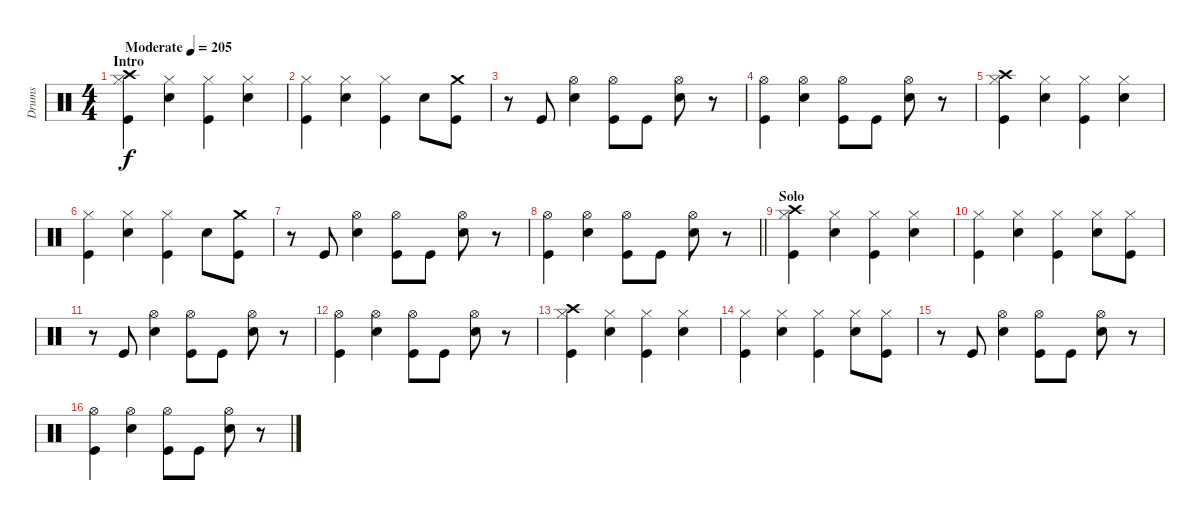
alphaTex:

\track ("Drums" "Drums") {instrument percussion}
\staff {score}
\articulation defaults
\ts (4 4)
\section ("" "Intro")
\tempo (205 "Moderate")
\clef neutral
\ks c
("Crash high (hit)" "Hi-Hat (closed)" "Kick (hit)").4{dy f} ("Hi-Hat (closed)" "Electric Snare (hit)").4 ("Hi-Hat (closed)" "Kick (hit)").4 ("Hi-Hat (closed)" "Electric Snare (hit)").4 |
("Hi-Hat (closed)" "Kick (hit)").4 ("Hi-Hat (closed)" "Electric Snare (hit)").4 ("Hi-Hat (closed)" "Kick (hit)").4 "Electric Snare (hit)".8 ("Crash medium (hit)" "Kick (hit)").8 |
r.8 "Kick (hit)".8 ("Hi-Hat (open)" "Electric Snare (hit)").4 ("Hi-Hat (open)" "Kick (hit)").8 "Kick (hit)".8 ("Hi-Hat (open)" "Electric Snare (hit)").8 r.8 |
("Hi-Hat (open)" "Kick (hit)").4 ("Hi-Hat (open)" "Electric Snare (hit)").4 ("Hi-Hat (open)" "Kick (hit)").8 "Kick (hit)".8 ("Hi-Hat (open)" "Electric Snare (hit)").8 r.8 |
("Crash high (hit)" "Hi-Hat (closed)" "Kick (hit)").4 ("Hi-Hat (closed)" "Electric Snare (hit)").4 ("Hi-Hat (closed)" "Kick (hit)").4 ("Hi-Hat (closed)" "Electric Snare (hit)").4 |
("Hi-Hat (closed)" "Kick (hit)").4 ("Hi-Hat (closed)" "Electric Snare (hit)").4 ("Hi-Hat (closed)" "Kick (hit)").4 "Electric Snare (hit)".8 ("Crash medium (hit)" "Kick (hit)").8 |
r.8 "Kick (hit)".8 ("Hi-Hat (open)" "Electric Snare (hit)").4 ("Hi-Hat (open)" "Kick (hit)").8 "Kick (hit)".8 ("Hi-Hat (open)" "Electric Snare (hit)").8 r.8 |
\barLineRight lightlight
("Hi-Hat (open)" "Kick (hit)").4 ("Hi-Hat (open)" "Electric Snare (hit)").4 ("Hi-Hat (open)" "Kick (hit)").8 "Kick (hit)".8 ("Hi-Hat (open)" "Electric Snare (hit)").8 r.8 |
\section ("" "Solo")
("Crash high (hit)" "Hi-Hat (closed)" "Kick (hit)").4 ("Hi-Hat (closed)" "Electric Snare (hit)").4 ("Hi-Hat (closed)" "Kick (hit)").4 ("Hi-Hat (closed)" "Electric Snare (hit)").4 |
("Hi-Hat (closed)" "Kick (hit)").4 ("Hi-Hat (closed)" "Electric Snare (hit)").4 ("Hi-Hat (closed)" "Kick (hit)").4 ("Hi-Hat (closed)" "Electric Snare (hit)").8 ("Hi-Hat (closed)" "Kick (hit)").8 |
r.8 "Kick (hit)".8 ("Hi-Hat (open)" "Electric Snare (hit)").4 ("Hi-Hat (open)" "Kick (hit)").8 "Kick (hit)".8 ("Hi-Hat (open)" "Electric Snare (hit)").8 r.8 |
("Hi-Hat (open)" "Kick (hit)").4 ("Hi-Hat (open)" "Electric Snare (hit)").4 ("Hi-Hat (open)" "Kick (hit)").8 "Kick (hit)".8 ("Hi-Hat (open)" "Electric Snare (hit)").8 r.8 |
("Crash high (hit)" "Hi-Hat (closed)" "Kick (hit)").4 ("Hi-Hat (closed)" "Electric Snare (hit)").4 ("Hi-Hat (closed)" "Kick (hit)").4 ("Hi-Hat (closed)" "Electric Snare (hit)").4 |
("Hi-Hat (closed)" "Kick (hit)").4 ("Hi-Hat (closed)" "Electric Snare (hit)").4 ("Hi-Hat (closed)" "Kick (hit)").4 ("Hi-Hat (closed)" "Electric Snare (hit)").8 ("Hi-Hat (closed)" "Kick (hit)").8 |
r.8 "Kick (hit)".8 ("Hi-Hat (open)" "Electric Snare (hit)").4 ("Hi-Hat (open)" "Kick (hit)").8 "Kick (hit)".8 ("Hi-Hat (open)" "Electric Snare (hit)").8 r.8 |
("Hi-Hat (open)" "Kick (hit)").4 ("Hi-Hat (open)" "Electric Snare (hit)").4 ("Hi-Hat (open)" "Kick (hit)").8 "Kick (hit)".8 ("Hi-Hat (open)" "Electric Snare (hit)").8 r.8
